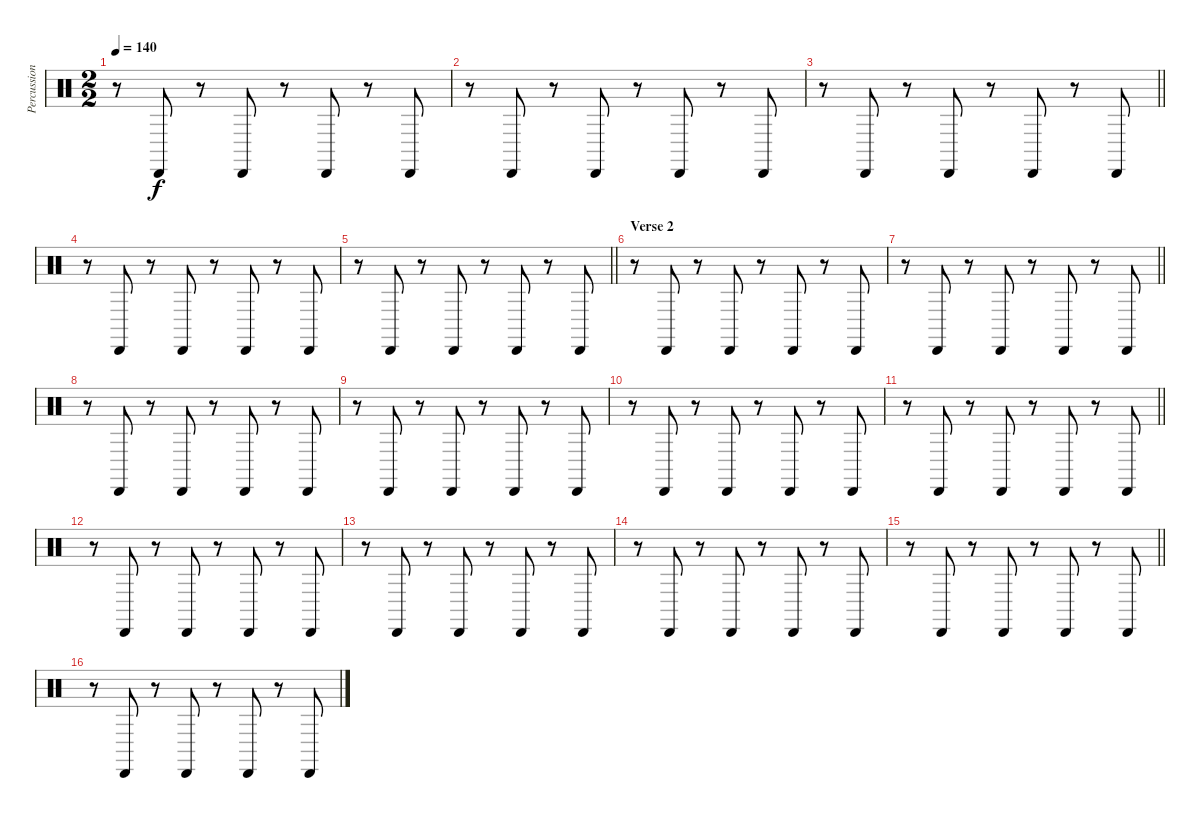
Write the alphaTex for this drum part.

\track ("Percussion 2" "Percussion") {instrument percussion}
\staff {score}
\articulation defaults
\ts (2 2)
\tempo 140
\clef neutral
\ks c
r.8{dy f} "Cabasa (hit)".8 r.8 "Cabasa (hit)".8 r.8 "Cabasa (hit)".8 r.8 "Cabasa (hit)".8 |
r.8 "Cabasa (hit)".8 r.8 "Cabasa (hit)".8 r.8 "Cabasa (hit)".8 r.8 "Cabasa (hit)".8 |
\barLineRight lightlight
r.8 "Cabasa (hit)".8 r.8 "Cabasa (hit)".8 r.8 "Cabasa (hit)".8 r.8 "Cabasa (hit)".8 |
r.8 "Cabasa (hit)".8 r.8 "Cabasa (hit)".8 r.8 "Cabasa (hit)".8 r.8 "Cabasa (hit)".8 |
\barLineRight lightlight
r.8 "Cabasa (hit)".8 r.8 "Cabasa (hit)".8 r.8 "Cabasa (hit)".8 r.8 "Cabasa (hit)".8 |
\section ("" "Verse 2")
r.8 "Cabasa (hit)".8 r.8 "Cabasa (hit)".8 r.8 "Cabasa (hit)".8 r.8 "Cabasa (hit)".8 |
\barLineRight lightlight
r.8 "Cabasa (hit)".8 r.8 "Cabasa (hit)".8 r.8 "Cabasa (hit)".8 r.8 "Cabasa (hit)".8 |
r.8 "Cabasa (hit)".8 r.8 "Cabasa (hit)".8 r.8 "Cabasa (hit)".8 r.8 "Cabasa (hit)".8 |
r.8 "Cabasa (hit)".8 r.8 "Cabasa (hit)".8 r.8 "Cabasa (hit)".8 r.8 "Cabasa (hit)".8 |
r.8 "Cabasa (hit)".8 r.8 "Cabasa (hit)".8 r.8 "Cabasa (hit)".8 r.8 "Cabasa (hit)".8 |
\barLineRight lightlight
r.8 "Cabasa (hit)".8 r.8 "Cabasa (hit)".8 r.8 "Cabasa (hit)".8 r.8 "Cabasa (hit)".8 |
r.8 "Cabasa (hit)".8 r.8 "Cabasa (hit)".8 r.8 "Cabasa (hit)".8 r.8 "Cabasa (hit)".8 |
r.8 "Cabasa (hit)".8 r.8 "Cabasa (hit)".8 r.8 "Cabasa (hit)".8 r.8 "Cabasa (hit)".8 |
r.8 "Cabasa (hit)".8 r.8 "Cabasa (hit)".8 r.8 "Cabasa (hit)".8 r.8 "Cabasa (hit)".8 |
\barLineRight lightlight
r.8 "Cabasa (hit)".8 r.8 "Cabasa (hit)".8 r.8 "Cabasa (hit)".8 r.8 "Cabasa (hit)".8 |
r.8 "Cabasa (hit)".8 r.8 "Cabasa (hit)".8 r.8 "Cabasa (hit)".8 r.8 "Cabasa (hit)".8
